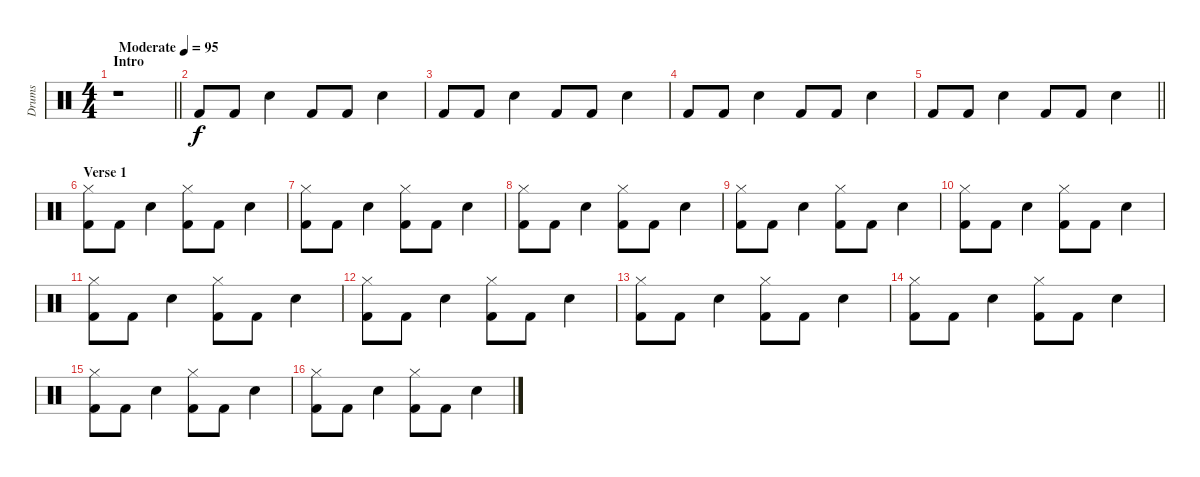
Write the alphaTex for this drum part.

\track ("Drums" "Drums") {instrument percussion}
\staff {score}
\articulation defaults
\ts (4 4)
\section ("" "Intro")
\tempo (95 "Moderate")
\clef neutral
\barLineRight lightlight
\ks c
r.1{dy f} |
\section ("" "")
"Kick (hit) 2".8 "Kick (hit) 2".8 "Electric Snare (hit)".4 "Kick (hit) 2".8 "Kick (hit) 2".8 "Electric Snare (hit)".4 |
"Kick (hit) 2".8 "Kick (hit) 2".8 "Electric Snare (hit)".4 "Kick (hit) 2".8 "Kick (hit) 2".8 "Electric Snare (hit)".4 |
"Kick (hit) 2".8 "Kick (hit) 2".8 "Electric Snare (hit)".4 "Kick (hit) 2".8 "Kick (hit) 2".8 "Electric Snare (hit)".4 |
\barLineRight lightlight "Kick (hit) 2".8 "Kick (hit) 2".8 "Electric Snare (hit)".4 "Kick (hit) 2".8 "Kick (hit) 2".8 "Electric Snare (hit)".4
|
\section ("" "Verse 1")
("Hi-Hat (closed)" "Kick (hit) 2").8 "Kick (hit) 2".8 "Electric Snare (hit)".4 ("Hi-Hat (closed)" "Kick (hit) 2").8 "Kick (hit) 2".8 "Electric Snare (hit)".4 |
("Hi-Hat (closed)" "Kick (hit) 2").8 "Kick (hit) 2".8 "Electric Snare (hit)".4 ("Hi-Hat (closed)" "Kick (hit) 2").8 "Kick (hit) 2".8 "Electric Snare (hit)".4 |
("Hi-Hat (closed)" "Kick (hit) 2").8 "Kick (hit) 2".8 "Electric Snare (hit)".4 ("Hi-Hat (closed)" "Kick (hit) 2").8 "Kick (hit) 2".8 "Electric Snare (hit)".4 |
("Hi-Hat (closed)" "Kick (hit) 2").8 "Kick (hit) 2".8 "Electric Snare (hit)".4 ("Hi-Hat (closed)" "Kick (hit) 2").8 "Kick (hit) 2".8 "Electric Snare (hit)".4 |
("Hi-Hat (closed)" "Kick (hit) 2").8 "Kick (hit) 2".8 "Electric Snare (hit)".4 ("Hi-Hat (closed)" "Kick (hit) 2").8 "Kick (hit) 2".8 "Electric Snare (hit)".4 |
("Hi-Hat (closed)" "Kick (hit) 2").8 "Kick (hit) 2".8 "Electric Snare (hit)".4 ("Hi-Hat (closed)" "Kick (hit) 2").8 "Kick (hit) 2".8 "Electric Snare (hit)".4 |
("Hi-Hat (closed)" "Kick (hit) 2").8 "Kick (hit) 2".8 "Electric Snare (hit)".4 ("Hi-Hat (closed)" "Kick (hit) 2").8 "Kick (hit) 2".8 "Electric Snare (hit)".4 |
("Hi-Hat (closed)" "Kick (hit) 2").8 "Kick (hit) 2".8 "Electric Snare (hit)".4 ("Hi-Hat (closed)" "Kick (hit) 2").8 "Kick (hit) 2".8 "Electric Snare (hit)".4 |
("Hi-Hat (closed)" "Kick (hit) 2").8 "Kick (hit) 2".8 "Electric Snare (hit)".4 ("Hi-Hat (closed)" "Kick (hit) 2").8 "Kick (hit) 2".8 "Electric Snare (hit)".4 |
("Hi-Hat (closed)" "Kick (hit) 2").8 "Kick (hit) 2".8 "Electric Snare (hit)".4 ("Hi-Hat (closed)" "Kick (hit) 2").8 "Kick (hit) 2".8 "Electric Snare (hit)".4 |
("Hi-Hat (closed)" "Kick (hit) 2").8 "Kick (hit) 2".8 "Electric Snare (hit)".4 ("Hi-Hat (closed)" "Kick (hit) 2").8 "Kick (hit) 2".8 "Electric Snare (hit)".4
